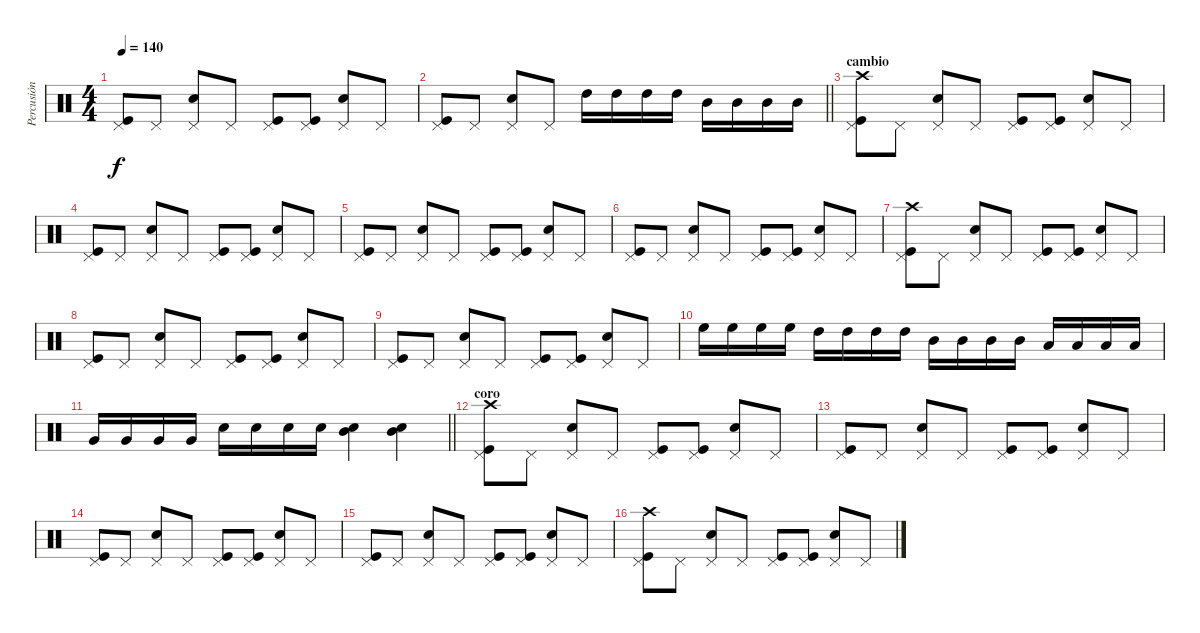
\track ("Percusión" "Percusión") {instrument percussion}
\staff {score}
\articulation defaults
\ts (4 4)
\tempo 140
\clef neutral
\ks c
("Kick (hit)" "Pedal Hi-Hat (hit)").8{dy f} "Pedal Hi-Hat (hit)".8 ("Snare (hit) 2" "Pedal Hi-Hat (hit)").8 "Pedal Hi-Hat (hit)".8 ("Kick (hit)" "Pedal Hi-Hat (hit)").8 ("Kick (hit)" "Pedal Hi-Hat (hit)").8 ("Snare (hit) 2" "Pedal Hi-Hat (hit)").8 "Pedal Hi-Hat (hit)".8 |
\barLineRight lightlight
("Kick (hit)" "Pedal Hi-Hat (hit)").8 "Pedal Hi-Hat (hit)".8 ("Snare (hit) 2" "Pedal Hi-Hat (hit)").8 "Pedal Hi-Hat (hit)".8 "High Tom (hit)".16 "High Tom (hit)".16 "High Tom (hit)".16 "High Tom (hit)".16 "Mid Tom (hit)".16 "Mid Tom (hit)".16 "Mid Tom (hit)".16 "Mid Tom (hit)".16 |
\section ("" "cambio")
("Crash high (hit)" "Kick (hit)" "Pedal Hi-Hat (hit)").8 "Pedal Hi-Hat (hit)".8 ("Snare (hit) 2" "Pedal Hi-Hat (hit)").8 "Pedal Hi-Hat (hit)".8 ("Kick (hit)" "Pedal Hi-Hat (hit)").8 ("Kick (hit)" "Pedal Hi-Hat (hit)").8 ("Snare (hit) 2" "Pedal Hi-Hat (hit)").8 "Pedal Hi-Hat (hit)".8 |
("Kick (hit)" "Pedal Hi-Hat (hit)").8 "Pedal Hi-Hat (hit)".8 ("Snare (hit) 2" "Pedal Hi-Hat (hit)").8 "Pedal Hi-Hat (hit)".8 ("Kick (hit)" "Pedal Hi-Hat (hit)").8 ("Kick (hit)" "Pedal Hi-Hat (hit)").8 ("Snare (hit) 2" "Pedal Hi-Hat (hit)").8 "Pedal Hi-Hat (hit)".8 |
("Kick (hit)" "Pedal Hi-Hat (hit)").8 "Pedal Hi-Hat (hit)".8 ("Snare (hit) 2" "Pedal Hi-Hat (hit)").8 "Pedal Hi-Hat (hit)".8 ("Kick (hit)" "Pedal Hi-Hat (hit)").8 ("Kick (hit)" "Pedal Hi-Hat (hit)").8 ("Snare (hit) 2" "Pedal Hi-Hat (hit)").8 "Pedal Hi-Hat (hit)".8 |
("Kick (hit)" "Pedal Hi-Hat (hit)").8 "Pedal Hi-Hat (hit)".8 ("Snare (hit) 2" "Pedal Hi-Hat (hit)").8 "Pedal Hi-Hat (hit)".8 ("Kick (hit)" "Pedal Hi-Hat (hit)").8 ("Kick (hit)" "Pedal Hi-Hat (hit)").8 ("Snare (hit) 2" "Pedal Hi-Hat (hit)").8 "Pedal Hi-Hat (hit)".8 |
("Crash high (hit)" "Kick (hit)" "Pedal Hi-Hat (hit)").8 "Pedal Hi-Hat (hit)".8 ("Snare (hit) 2" "Pedal Hi-Hat (hit)").8 "Pedal Hi-Hat (hit)".8 ("Kick (hit)" "Pedal Hi-Hat (hit)").8 ("Kick (hit)" "Pedal Hi-Hat (hit)").8 ("Snare (hit) 2" "Pedal Hi-Hat (hit)").8 "Pedal Hi-Hat (hit)".8 |
("Kick (hit)" "Pedal Hi-Hat (hit)").8 "Pedal Hi-Hat (hit)".8 ("Snare (hit) 2" "Pedal Hi-Hat (hit)").8 "Pedal Hi-Hat (hit)".8 ("Kick (hit)" "Pedal Hi-Hat (hit)").8 ("Kick (hit)" "Pedal Hi-Hat (hit)").8 ("Snare (hit) 2" "Pedal Hi-Hat (hit)").8 "Pedal Hi-Hat (hit)".8 |
("Kick (hit)" "Pedal Hi-Hat (hit)").8 "Pedal Hi-Hat (hit)".8 ("Snare (hit) 2" "Pedal Hi-Hat (hit)").8 "Pedal Hi-Hat (hit)".8 ("Kick (hit)" "Pedal Hi-Hat (hit)").8 ("Kick (hit)" "Pedal Hi-Hat (hit)").8 ("Snare (hit) 2" "Pedal Hi-Hat (hit)").8 "Pedal Hi-Hat (hit)".8 |
"High Floor Tom (hit)".16 "High Floor Tom (hit)".16 "High Floor Tom (hit)".16 "High Floor Tom (hit)".16 "High Tom (hit)".16 "High Tom (hit)".16 "High Tom (hit)".16 "High Tom (hit)".16 "Mid Tom (hit)".16 "Mid Tom (hit)".16 "Mid Tom (hit)".16 "Mid Tom (hit)".16 "Low Tom (hit)".16 "Low Tom (hit)".16 "Low Tom (hit)".16 "Low Tom (hit)".16 |
\barLineRight lightlight "Very Low Tom (hit)".16 "Very Low Tom (hit)".16 "Very Low Tom (hit)".16 "Very Low Tom (hit)".16 "Snare (hit) 2".16 "Snare (hit) 2".16 "Snare (hit) 2".16 "Snare (hit) 2".16
("Snare (hit) 2" "Mid Tom (hit)").4 ("Mid Tom (hit)" "Snare (hit) 2").4 |
\section ("" "coro")
("Crash high (hit)" "Kick (hit)" "Pedal Hi-Hat (hit)").8 "Pedal Hi-Hat (hit)".8 ("Snare (hit) 2" "Pedal Hi-Hat (hit)").8 "Pedal Hi-Hat (hit)".8 ("Kick (hit)" "Pedal Hi-Hat (hit)").8 ("Kick (hit)" "Pedal Hi-Hat (hit)").8 ("Snare (hit) 2" "Pedal Hi-Hat (hit)").8 "Pedal Hi-Hat (hit)".8 |
("Kick (hit)" "Pedal Hi-Hat (hit)").8 "Pedal Hi-Hat (hit)".8 ("Snare (hit) 2" "Pedal Hi-Hat (hit)").8 "Pedal Hi-Hat (hit)".8 ("Kick (hit)" "Pedal Hi-Hat (hit)").8 ("Kick (hit)" "Pedal Hi-Hat (hit)").8 ("Snare (hit) 2" "Pedal Hi-Hat (hit)").8 "Pedal Hi-Hat (hit)".8 |
("Kick (hit)" "Pedal Hi-Hat (hit)").8 "Pedal Hi-Hat (hit)".8 ("Snare (hit) 2" "Pedal Hi-Hat (hit)").8 "Pedal Hi-Hat (hit)".8 ("Kick (hit)" "Pedal Hi-Hat (hit)").8 ("Kick (hit)" "Pedal Hi-Hat (hit)").8 ("Snare (hit) 2" "Pedal Hi-Hat (hit)").8 "Pedal Hi-Hat (hit)".8 |
("Kick (hit)" "Pedal Hi-Hat (hit)").8 "Pedal Hi-Hat (hit)".8 ("Snare (hit) 2" "Pedal Hi-Hat (hit)").8 "Pedal Hi-Hat (hit)".8 ("Kick (hit)" "Pedal Hi-Hat (hit)").8 ("Kick (hit)" "Pedal Hi-Hat (hit)").8 ("Snare (hit) 2" "Pedal Hi-Hat (hit)").8 "Pedal Hi-Hat (hit)".8 |
("Crash high (hit)" "Kick (hit)" "Pedal Hi-Hat (hit)").8 "Pedal Hi-Hat (hit)".8 ("Snare (hit) 2" "Pedal Hi-Hat (hit)").8 "Pedal Hi-Hat (hit)".8 ("Kick (hit)" "Pedal Hi-Hat (hit)").8 ("Kick (hit)" "Pedal Hi-Hat (hit)").8 ("Snare (hit) 2" "Pedal Hi-Hat (hit)").8 "Pedal Hi-Hat (hit)".8
